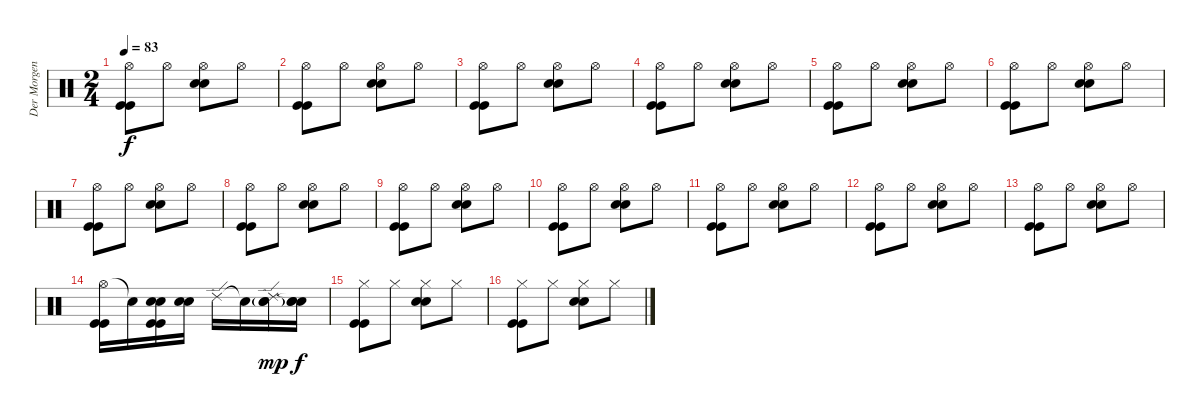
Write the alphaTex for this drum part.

\track ("Der Morgenstern" "Der Morgen") {instrument percussion}
\staff {score}
\articulation defaults
\ts (2 4)
\tempo 83
\clef neutral
\ks c
("Hi-Hat (open)" "Kick (hit)" "Kick (hit)").8{dy f} "Hi-Hat (open)".8 ("Hi-Hat (open)" "Electric Snare (hit)" "Electric Snare (hit)").8 "Hi-Hat (open)".8 |
("Hi-Hat (open)" "Kick (hit)" "Kick (hit)").8 "Hi-Hat (open)".8 ("Hi-Hat (open)" "Electric Snare (hit)" "Electric Snare (hit)").8 "Hi-Hat (open)".8 |
("Hi-Hat (open)" "Kick (hit)" "Kick (hit)").8 "Hi-Hat (open)".8 ("Hi-Hat (open)" "Electric Snare (hit)" "Electric Snare (hit)").8 "Hi-Hat (open)".8 |
("Hi-Hat (open)" "Kick (hit)" "Kick (hit)").8 "Hi-Hat (open)".8 ("Hi-Hat (open)" "Electric Snare (hit)" "Electric Snare (hit)").8 "Hi-Hat (open)".8 |
("Hi-Hat (open)" "Kick (hit)" "Kick (hit)").8 "Hi-Hat (open)".8 ("Hi-Hat (open)" "Electric Snare (hit)" "Electric Snare (hit)").8 "Hi-Hat (open)".8 |
("Hi-Hat (open)" "Kick (hit)" "Kick (hit)").8 "Hi-Hat (open)".8 ("Hi-Hat (open)" "Electric Snare (hit)" "Electric Snare (hit)").8 "Hi-Hat (open)".8 |
("Hi-Hat (open)" "Kick (hit)" "Kick (hit)").8 "Hi-Hat (open)".8 ("Hi-Hat (open)" "Electric Snare (hit)" "Electric Snare (hit)").8 "Hi-Hat (open)".8 |
("Hi-Hat (open)" "Kick (hit)" "Kick (hit)").8 "Hi-Hat (open)".8 ("Hi-Hat (open)" "Electric Snare (hit)" "Electric Snare (hit)").8 "Hi-Hat (open)".8 |
("Hi-Hat (open)" "Kick (hit)" "Kick (hit)").8 "Hi-Hat (open)".8 ("Hi-Hat (open)" "Electric Snare (hit)" "Electric Snare (hit)").8 "Hi-Hat (open)".8 |
("Hi-Hat (open)" "Kick (hit)" "Kick (hit)").8 "Hi-Hat (open)".8 ("Hi-Hat (open)" "Electric Snare (hit)" "Electric Snare (hit)").8 "Hi-Hat (open)".8 |
("Hi-Hat (open)" "Kick (hit)" "Kick (hit)").8 "Hi-Hat (open)".8 ("Hi-Hat (open)" "Electric Snare (hit)" "Electric Snare (hit)").8 "Hi-Hat (open)".8 |
("Hi-Hat (open)" "Kick (hit)" "Kick (hit)").8 "Hi-Hat (open)".8 ("Hi-Hat (open)" "Electric Snare (hit)" "Electric Snare (hit)").8 "Hi-Hat (open)".8 |
("Hi-Hat (open)" "Kick (hit)" "Kick (hit)").8 "Hi-Hat (open)".8 ("Hi-Hat (open)" "Electric Snare (hit)" "Electric Snare (hit)").8 "Hi-Hat (open)".8 |
("Hi-Hat (open)" "Kick (hit)" "Kick (hit)").16 "Snare (hit)"{t}.16 ("Electric Snare (hit)" "Electric Snare (hit)" "Kick (hit)" "Kick (hit)").16 ("Electric Snare (hit)" "Electric Snare (hit)").16 "Ride (edge) 2".16 "Snare (hit)"{t}.16 ("Ride (edge) 2" "Electric Snare (hit)"{g} "Electric Snare (hit)"{g}).16{dy mp} ("Snare (hit)"{t} "Electric Snare (hit)" "Electric Snare (hit)").16{dy f} |
("Hi-Hat (closed)" "Kick (hit)" "Kick (hit)").8 "Hi-Hat (closed)".8 ("Hi-Hat (closed)" "Electric Snare (hit)" "Electric Snare (hit)").8 "Hi-Hat (closed)".8 |
("Hi-Hat (closed)" "Kick (hit)" "Kick (hit)").8 "Hi-Hat (closed)".8 ("Hi-Hat (closed)" "Electric Snare (hit)" "Electric Snare (hit)").8 "Hi-Hat (closed)".8
